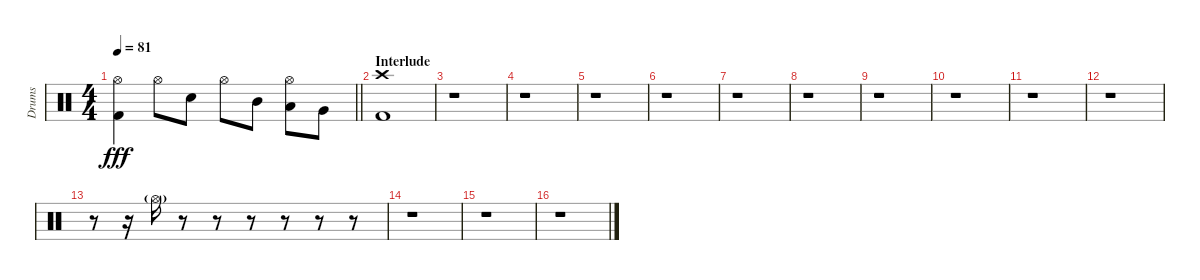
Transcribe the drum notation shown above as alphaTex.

\track ("Drums" "Drums") {instrument percussion}
\staff {score}
\articulation defaults
\ts (4 4)
\tempo 81
\clef neutral
\barLineRight lightlight
\ks c
("Hi-Hat (open)" "Kick (hit) 2").4{dy fff} "Hi-Hat (open)".8 "Electric Snare (hit)".8 "Hi-Hat (open)".8 "Mid Tom (hit)".8 ("Hi-Hat (open)" "Low Tom (hit)").8 "Very Low Tom (hit)".8 |
\section ("" "Interlude")
("Crash high (hit)" "Kick (hit) 2").1 |
r.1 |
r.1 |
r.1 |
r.1 |
r.1 |
r.1 |
r.1 |
r.1 |
r.1 |
r.1 |
r.8 r.16 "Hi-Hat (open)"{g}.16 r.8 r.8 r.8 r.8 r.8 r.8 |
r.1 |
r.1 |
r.1
